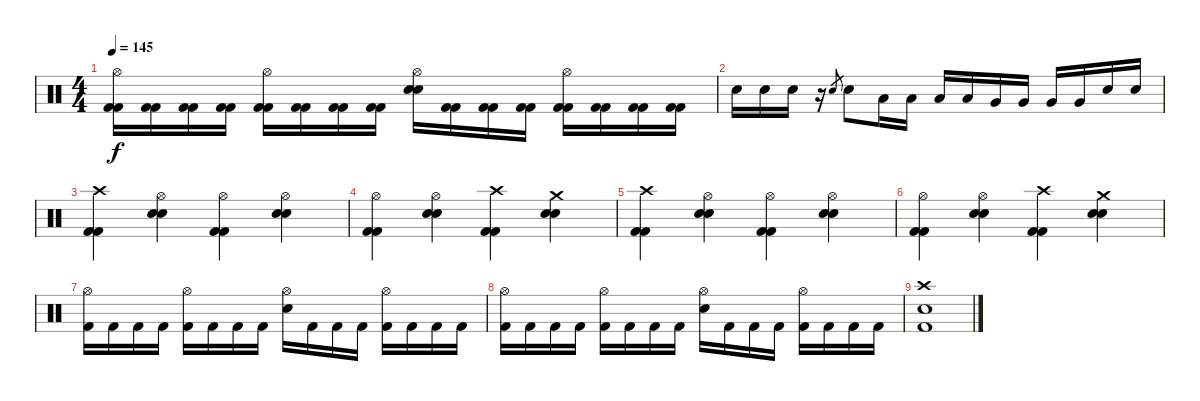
\track "" {instrument percussion}
\staff {score}
\articulation defaults
\ts (4 4)
\tempo 145
\clef neutral
\ks c
("Hi-Hat (open)" "Kick (hit) 2" "Kick (hit) 2").16{dy f} ("Kick (hit) 2" "Kick (hit) 2").16 ("Kick (hit) 2" "Kick (hit) 2").16 ("Kick (hit) 2" "Kick (hit) 2").16 ("Hi-Hat (open)" "Kick (hit) 2" "Kick (hit) 2").16 ("Kick (hit) 2" "Kick (hit) 2").16 ("Kick (hit) 2" "Kick (hit) 2").16 ("Kick (hit) 2" "Kick (hit) 2").16 ("Hi-Hat (open)" "Snare (hit) 2" "Snare (hit) 2").16 ("Kick (hit) 2" "Kick (hit) 2").16 ("Kick (hit) 2" "Kick (hit) 2").16 ("Kick (hit) 2" "Kick (hit) 2").16 ("Hi-Hat (open)" "Kick (hit) 2" "Kick (hit) 2").16 ("Kick (hit) 2" "Kick (hit) 2").16 ("Kick (hit) 2" "Kick (hit) 2").16 ("Kick (hit) 2" "Kick (hit) 2").16 |
"Electric Snare (hit)".16 "Electric Snare (hit)".16 "Electric Snare (hit)".16 r.16 "Electric Snare (hit)".8{gr} "Electric Snare (hit)".8 "Low Tom (hit)".16 "Low Tom (hit)".16 "Low Tom (hit)".16 "Low Tom (hit)".16 "Very Low Tom (hit)".16 "Very Low Tom (hit)".16 "Very Low Tom (hit)".16 "Very Low Tom (hit)".16 "Snare (hit) 2".16 "Snare (hit) 2".16 |
("Crash high (hit)" "Kick (hit) 2" "Kick (hit) 2").4 ("Hi-Hat (open)" "Snare (hit) 2" "Snare (hit) 2").4 ("Hi-Hat (open)" "Kick (hit) 2" "Kick (hit) 2").4 ("Hi-Hat (open)" "Snare (hit) 2" "Snare (hit) 2").4 |
("Hi-Hat (open)" "Kick (hit) 2" "Kick (hit) 2").4 ("Hi-Hat (open)" "Snare (hit) 2" "Snare (hit) 2").4 ("Crash high (hit)" "Kick (hit) 2" "Kick (hit) 2").4 ("Crash medium (hit)" "Snare (hit) 2" "Snare (hit) 2").4 |
("Crash high (hit)" "Kick (hit) 2" "Kick (hit) 2").4 ("Hi-Hat (open)" "Snare (hit) 2" "Snare (hit) 2").4 ("Hi-Hat (open)" "Kick (hit) 2" "Kick (hit) 2").4 ("Hi-Hat (open)" "Snare (hit) 2" "Snare (hit) 2").4 |
("Hi-Hat (open)" "Kick (hit) 2" "Kick (hit) 2").4 ("Hi-Hat (open)" "Snare (hit) 2" "Snare (hit) 2").4 ("Crash high (hit)" "Kick (hit) 2" "Kick (hit) 2").4 ("Crash medium (hit)" "Snare (hit) 2" "Snare (hit) 2").4 |
("Hi-Hat (open)" "Kick (hit) 2").16 "Kick (hit) 2".16 "Kick (hit) 2".16 "Kick (hit) 2".16 ("Hi-Hat (open)" "Kick (hit) 2").16 "Kick (hit) 2".16 "Kick (hit) 2".16 "Kick (hit) 2".16 ("Hi-Hat (open)" "Snare (hit) 2").16 "Kick (hit) 2".16 "Kick (hit) 2".16 "Kick (hit) 2".16 ("Hi-Hat (open)" "Kick (hit) 2").16 "Kick (hit) 2".16 "Kick (hit) 2".16 "Kick (hit) 2".16 |
("Hi-Hat (open)" "Kick (hit) 2").16 "Kick (hit) 2".16 "Kick (hit) 2".16 "Kick (hit) 2".16 ("Hi-Hat (open)" "Kick (hit) 2").16 "Kick (hit) 2".16 "Kick (hit) 2".16 "Kick (hit) 2".16 ("Hi-Hat (open)" "Snare (hit) 2").16 "Kick (hit) 2".16 "Kick (hit) 2".16 "Kick (hit) 2".16 ("Hi-Hat (open)" "Kick (hit) 2").16 "Kick (hit) 2".16 "Kick (hit) 2".16 "Kick (hit) 2".16 |
("Crash high (hit)" "Snare (hit) 2" "Kick (hit) 2").1
